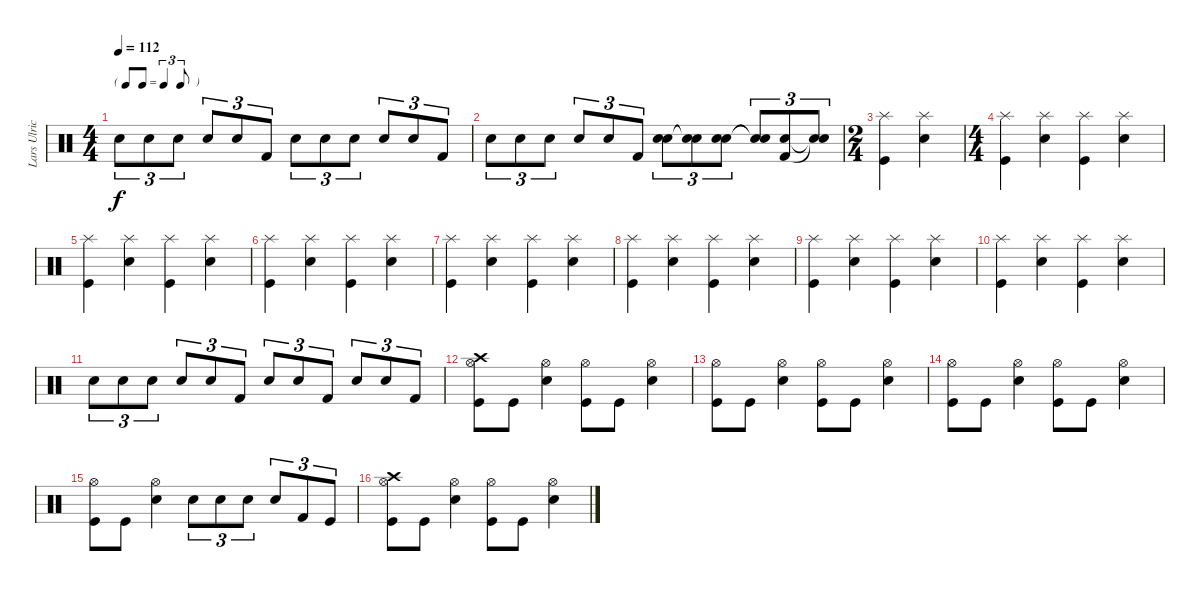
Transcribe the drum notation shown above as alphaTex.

\track ("Lars Ulrich (Drums)" "Lars Ulric") {instrument percussion}
\staff {score}
\articulation defaults
\ts (4 4)
\tf triplet8th
\tempo 112
\clef neutral
\ks c "Electric Snare (hit)".8{tu (3 2) dy f} "Electric Snare (hit)".8{tu (3 2)} "Electric Snare (hit)".8{tu (3 2)} "Electric Snare (hit)".8{tu (3 2)} "Snare (hit) 2".8{tu (3 2)} "Kick (hit) 2".8{tu (3 2)} "Electric Snare (hit)".8{tu (3 2)} "Electric Snare (hit)".8{tu (3 2)} "Electric Snare (hit)".8{tu (3 2)} "Electric Snare (hit)".8{tu (3 2)} "Snare (hit) 2".8{tu (3 2)} "Kick (hit) 2".8{tu (3 2)}
|
"Electric Snare (hit)".8{tu (3 2)} "Electric Snare (hit)".8{tu (3 2)} "Electric Snare (hit)".8{tu (3 2)} "Electric Snare (hit)".8{tu (3 2)} "Snare (hit) 2".8{tu (3 2)} "Kick (hit) 2".8{tu (3 2)} ("Electric Snare (hit)" "Snare (hit) 2").8{tu (3 2)} ("Snare (hit)"{t} "Snare (hit)"{t}).8{tu (3 2)} ("Electric Snare (hit)" "Snare (hit) 2").8{tu (3 2)} ("Snare (hit)"{t} "Snare (hit)"{t}).8{tu (3 2)} ("Electric Snare (hit)" "Kick (hit) 2").8{tu (3 2)} ("Snare (hit)"{t} "Snare (hit)"{t}).8{tu (3 2)} |
\ts (2 4)
("Splash (hit)" "Kick (hit)").4 ("Splash (hit)" "Electric Snare (hit)").4 |
\ts (4 4)
("Splash (hit)" "Kick (hit)").4 ("Splash (hit)" "Electric Snare (hit)").4 ("Splash (hit)" "Kick (hit)").4 ("Splash (hit)" "Electric Snare (hit)").4 |
("Splash (hit)" "Kick (hit)").4 ("Splash (hit)" "Electric Snare (hit)").4 ("Splash (hit)" "Kick (hit)").4 ("Splash (hit)" "Electric Snare (hit)").4 |
("Splash (hit)" "Kick (hit)").4 ("Splash (hit)" "Electric Snare (hit)").4 ("Splash (hit)" "Kick (hit)").4 ("Splash (hit)" "Electric Snare (hit)").4 |
("Splash (hit)" "Kick (hit)").4 ("Splash (hit)" "Electric Snare (hit)").4 ("Splash (hit)" "Kick (hit)").4 ("Splash (hit)" "Electric Snare (hit)").4 |
("Splash (hit)" "Kick (hit)").4 ("Splash (hit)" "Electric Snare (hit)").4 ("Splash (hit)" "Kick (hit)").4 ("Splash (hit)" "Electric Snare (hit)").4 |
("Splash (hit)" "Kick (hit)").4 ("Splash (hit)" "Electric Snare (hit)").4 ("Splash (hit)" "Kick (hit)").4 ("Splash (hit)" "Electric Snare (hit)").4 |
("Splash (hit)" "Kick (hit)").4 ("Splash (hit)" "Electric Snare (hit)").4 ("Splash (hit)" "Kick (hit)").4 ("Splash (hit)" "Electric Snare (hit)").4 |
"Electric Snare (hit)".8{tu (3 2)} "Electric Snare (hit)".8{tu (3 2)} "Electric Snare (hit)".8{tu (3 2)} "Snare (hit) 2".8{tu (3 2)} "Snare (hit) 2".8{tu (3 2)} "Kick (hit) 2".8{tu (3 2)} "Electric Snare (hit)".8{tu (3 2)} "Electric Snare (hit)".8{tu (3 2)} "Kick (hit) 2".8{tu (3 2)} "Snare (hit) 2".8{tu (3 2)} "Snare (hit) 2".8{tu (3 2)} "Kick (hit) 2".8{tu (3 2)} |
("Hi-Hat (open)" "Crash high (hit)" "Kick (hit)").8 "Kick (hit)".8 ("Hi-Hat (open)" "Electric Snare (hit)").4 ("Hi-Hat (open)" "Kick (hit)").8 "Kick (hit)".8 ("Hi-Hat (open)" "Electric Snare (hit)").4 |
("Hi-Hat (open)" "Kick (hit)").8 "Kick (hit)".8 ("Hi-Hat (open)" "Electric Snare (hit)").4 ("Hi-Hat (open)" "Kick (hit)").8 "Kick (hit)".8 ("Hi-Hat (open)" "Electric Snare (hit)").4 |
("Hi-Hat (open)" "Kick (hit)").8 "Kick (hit)".8 ("Hi-Hat (open)" "Electric Snare (hit)").4 ("Hi-Hat (open)" "Kick (hit)").8 "Kick (hit)".8 ("Hi-Hat (open)" "Electric Snare (hit)").4 |
("Hi-Hat (open)" "Kick (hit)").8 "Kick (hit)".8 ("Hi-Hat (open)" "Electric Snare (hit)").4 "Electric Snare (hit)".8{tu (3 2)} "Electric Snare (hit)".8{tu (3 2)} "Electric Snare (hit)".8{tu (3 2)} "Snare (hit) 2".8{tu (3 2)} "Kick (hit) 2".8{tu (3 2)} "Kick (hit)".8{tu (3 2)} |
("Hi-Hat (open)" "Crash high (hit)" "Kick (hit)").8 "Kick (hit)".8 ("Hi-Hat (open)" "Electric Snare (hit)").4 ("Hi-Hat (open)" "Kick (hit)").8 "Kick (hit)".8 ("Hi-Hat (open)" "Electric Snare (hit)").4
